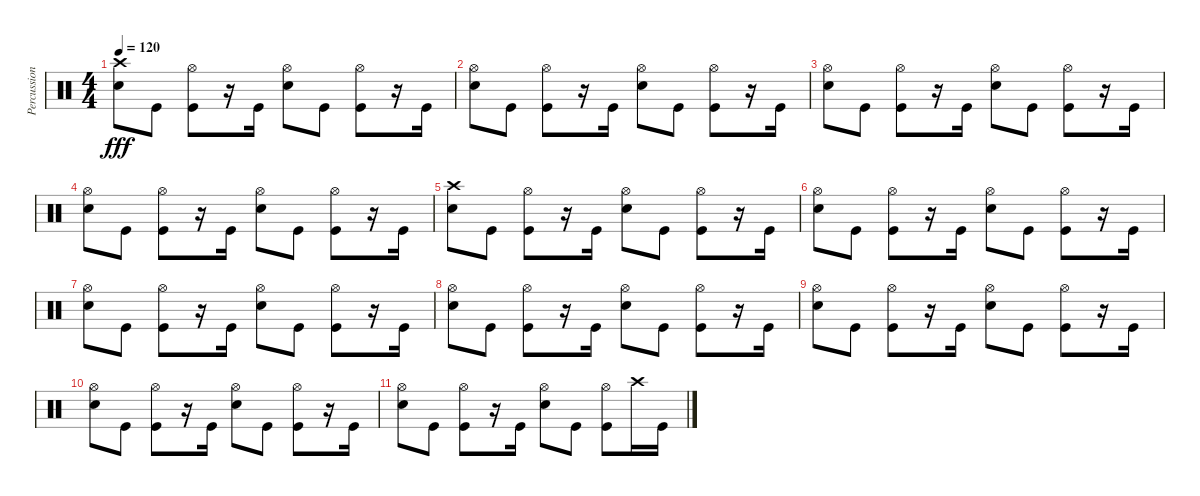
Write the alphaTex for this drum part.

\track ("Percussion" "Percussion") {instrument percussion}
\staff {score}
\articulation defaults
\ts (4 4)
\tempo 120
\clef neutral
\ks c
("Crash high (hit)" "Snare (hit) 2").8{dy fff} "Kick (hit)".8 ("Hi-Hat (open)" "Kick (hit)").8 r.16 "Kick (hit)".16 ("Hi-Hat (open)" "Snare (hit) 2").8 "Kick (hit)".8 ("Hi-Hat (open)" "Kick (hit)").8 r.16 "Kick (hit)".16 |
("Hi-Hat (open)" "Snare (hit) 2").8 "Kick (hit)".8 ("Hi-Hat (open)" "Kick (hit)").8 r.16 "Kick (hit)".16 ("Hi-Hat (open)" "Snare (hit) 2").8 "Kick (hit)".8 ("Hi-Hat (open)" "Kick (hit)").8 r.16 "Kick (hit)".16 |
("Hi-Hat (open)" "Snare (hit) 2").8 "Kick (hit)".8 ("Hi-Hat (open)" "Kick (hit)").8 r.16 "Kick (hit)".16 ("Hi-Hat (open)" "Snare (hit) 2").8 "Kick (hit)".8 ("Hi-Hat (open)" "Kick (hit)").8 r.16 "Kick (hit)".16 |
("Hi-Hat (open)" "Snare (hit) 2").8 "Kick (hit)".8 ("Hi-Hat (open)" "Kick (hit)").8 r.16 "Kick (hit)".16 ("Hi-Hat (open)" "Snare (hit) 2").8 "Kick (hit)".8 ("Hi-Hat (open)" "Kick (hit)").8 r.16 "Kick (hit)".16 |
("Crash high (hit)" "Snare (hit) 2").8 "Kick (hit)".8 ("Hi-Hat (open)" "Kick (hit)").8 r.16 "Kick (hit)".16 ("Hi-Hat (open)" "Snare (hit) 2").8 "Kick (hit)".8 ("Hi-Hat (open)" "Kick (hit)").8 r.16 "Kick (hit)".16 |
("Hi-Hat (open)" "Snare (hit) 2").8 "Kick (hit)".8 ("Hi-Hat (open)" "Kick (hit)").8 r.16 "Kick (hit)".16 ("Hi-Hat (open)" "Snare (hit) 2").8 "Kick (hit)".8 ("Hi-Hat (open)" "Kick (hit)").8 r.16 "Kick (hit)".16 |
("Hi-Hat (open)" "Snare (hit) 2").8 "Kick (hit)".8 ("Hi-Hat (open)" "Kick (hit)").8 r.16 "Kick (hit)".16 ("Hi-Hat (open)" "Snare (hit) 2").8 "Kick (hit)".8 ("Hi-Hat (open)" "Kick (hit)").8 r.16 "Kick (hit)".16 |
("Hi-Hat (open)" "Snare (hit) 2").8 "Kick (hit)".8 ("Hi-Hat (open)" "Kick (hit)").8 r.16 "Kick (hit)".16 ("Hi-Hat (open)" "Snare (hit) 2").8 "Kick (hit)".8 ("Hi-Hat (open)" "Kick (hit)").8 r.16 "Kick (hit)".16 |
("Hi-Hat (open)" "Snare (hit) 2").8 "Kick (hit)".8 ("Hi-Hat (open)" "Kick (hit)").8 r.16 "Kick (hit)".16 ("Hi-Hat (open)" "Snare (hit) 2").8 "Kick (hit)".8 ("Hi-Hat (open)" "Kick (hit)").8 r.16 "Kick (hit)".16 |
("Hi-Hat (open)" "Snare (hit) 2").8 "Kick (hit)".8 ("Hi-Hat (open)" "Kick (hit)").8 r.16 "Kick (hit)".16 ("Hi-Hat (open)" "Snare (hit) 2").8 "Kick (hit)".8 ("Hi-Hat (open)" "Kick (hit)").8 r.16 "Kick (hit)".16 |
("Hi-Hat (open)" "Snare (hit) 2").8 "Kick (hit)".8 ("Hi-Hat (open)" "Kick (hit)").8 r.16 "Kick (hit)".16 ("Hi-Hat (open)" "Snare (hit) 2").8 "Kick (hit)".8 ("Hi-Hat (open)" "Kick (hit)").8 "Crash high (hit)".16 "Kick (hit)".16
